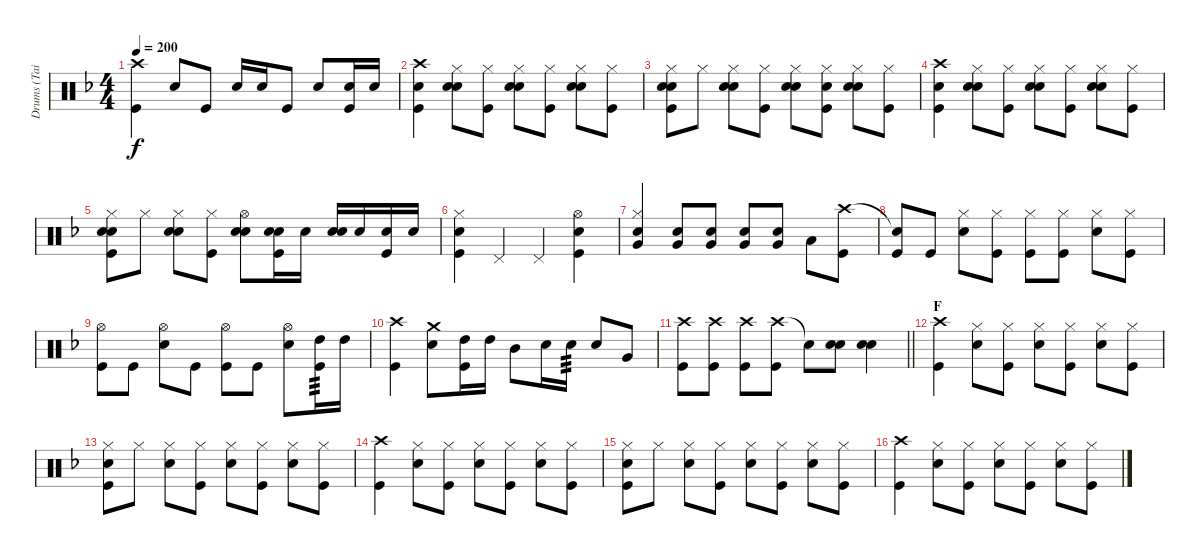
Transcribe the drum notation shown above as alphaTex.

\track ("Drums (Tainaka Ritsu)" "Drums (Tai") {instrument percussion}
\staff {score}
\articulation defaults
\ts (4 4)
\tempo 200
\clef neutral
\ks f
("Crash high (hit)" "Kick (hit)").4{dy f} "Snare (hit) 2".8 "Kick (hit)".8 "Snare (hit) 2".16 "Snare (hit) 2".16 "Kick (hit)".8 "Snare (hit) 2".8 ("Snare (hit) 2" "Kick (hit)").16 "Snare (hit) 2".16 |
("Crash high (hit)" "Hand Clap (hit)" "Kick (hit)").4 ("Hi-Hat (closed)" "Hand Clap (hit)" "Snare (hit) 2").8 ("Hi-Hat (closed)" "Kick (hit)").8 ("Hi-Hat (closed)" "Hand Clap (hit)" "Snare (hit) 2").8 ("Hi-Hat (closed)" "Kick (hit)").8 ("Hi-Hat (closed)" "Hand Clap (hit)" "Snare (hit) 2").8 ("Hi-Hat (closed)" "Kick (hit)").8 |
("Hi-Hat (closed)" "Hand Clap (hit)" "Snare (hit) 2" "Kick (hit)").8 "Hi-Hat (closed)".8 ("Hi-Hat (closed)" "Hand Clap (hit)" "Snare (hit) 2").8 ("Hi-Hat (closed)" "Kick (hit)").8 ("Hi-Hat (closed)" "Hand Clap (hit)" "Snare (hit) 2").8 ("Hi-Hat (closed)" "Hand Clap (hit)" "Kick (hit)").8 ("Hi-Hat (closed)" "Hand Clap (hit)" "Snare (hit) 2").8 ("Hi-Hat (closed)" "Kick (hit)").8 |
("Crash high (hit)" "Hand Clap (hit)" "Kick (hit)").4 ("Hi-Hat (closed)" "Hand Clap (hit)" "Snare (hit) 2").8 ("Hi-Hat (closed)" "Kick (hit)").8 ("Hi-Hat (closed)" "Hand Clap (hit)" "Snare (hit) 2").8 ("Hi-Hat (closed)" "Kick (hit)").8 ("Hi-Hat (closed)" "Hand Clap (hit)" "Snare (hit) 2").8 ("Hi-Hat (closed)" "Kick (hit)").8 |
("Hi-Hat (closed)" "Hand Clap (hit)" "Snare (hit) 2" "Kick (hit)").8 "Hi-Hat (closed)".8 ("Hi-Hat (closed)" "Hand Clap (hit)" "Snare (hit) 2").8 ("Hi-Hat (closed)" "Kick (hit)").8 ("Hi-Hat (open)" "Hand Clap (hit)" "Snare (hit) 2").8 ("Hand Clap (hit)" "Snare (hit) 2" "Kick (hit)").16 "Snare (hit) 2".16 ("Hand Clap (hit)" "Snare (hit) 2").16 "Snare (hit) 2".16 ("Snare (hit) 2" "Kick (hit)").16 "Snare (hit) 2".16 |
("Hi-Hat (closed)" "Snare (hit) 2" "Kick (hit)").4 "Pedal Hi-Hat (hit)".4 "Pedal Hi-Hat (hit)".4 ("Hi-Hat (open)" "Snare (hit) 2" "Kick (hit)").4 |
("Hi-Hat (closed)" "Snare (hit) 2" "Very Low Tom (hit)").4 ("Snare (hit) 2" "Very Low Tom (hit)").8 ("Snare (hit) 2" "Very Low Tom (hit)").8 ("Snare (hit) 2" "Very Low Tom (hit)").8 ("Snare (hit) 2" "Very Low Tom (hit)").8 "Low Tom (hit)".8 ("Crash high (hit)" "Kick (hit)").8 |
("Snare (hit)"{t} "Kick (hit)").8 "Kick (hit)".8 ("Hi-Hat (closed)" "Snare (hit) 2").8 ("Hi-Hat (closed)" "Kick (hit)").8 ("Hi-Hat (closed)" "Kick (hit)").8 ("Hi-Hat (closed)" "Kick (hit)").8 ("Hi-Hat (closed)" "Snare (hit) 2").8 ("Hi-Hat (closed)" "Kick (hit)").8 |
("Hi-Hat (open)" "Kick (hit)").8 "Kick (hit)".8 ("Hi-Hat (open)" "Snare (hit) 2").8 "Kick (hit)".8 ("Hi-Hat (open)" "Kick (hit)").8 "Kick (hit)".8 ("Hi-Hat (open)" "Snare (hit) 2").8 ("High Tom (hit)" "Kick (hit)").16{tp 3} "High Tom (hit)".16 |
("Crash high (hit)" "Kick (hit)").4 ("Crash medium (hit)" "Snare (hit) 2").8 ("High Tom (hit)" "Kick (hit)").16 "High Tom (hit)".16 "Mid Tom (hit)".8 "Snare (hit) 2".16 "Snare (hit) 2".16{tp 3} "Snare (hit) 2".8 "Very Low Tom (hit)".8 |
\barLineRight lightlight
("Crash high (hit)" "Kick (hit)").8 ("Crash high (hit)" "Kick (hit)").8 ("Crash high (hit)" "Kick (hit)").8 ("Crash high (hit)" "Kick (hit)").8 "Snare (hit)"{t}.8 ("Hand Clap (hit)" "Snare (hit) 2").8 ("Hand Clap (hit)" "Snare (hit) 2").4 |
\section ("" "F")
("Crash high (hit)" "Kick (hit)").4 ("Hi-Hat (closed)" "Snare (hit) 2").8 ("Hi-Hat (closed)" "Kick (hit)").8 ("Hi-Hat (closed)" "Snare (hit) 2").8 ("Hi-Hat (closed)" "Kick (hit)").8 ("Hi-Hat (closed)" "Snare (hit) 2").8 ("Hi-Hat (closed)" "Kick (hit)").8 |
("Hi-Hat (closed)" "Snare (hit) 2" "Kick (hit)").8 "Hi-Hat (closed)".8 ("Hi-Hat (closed)" "Snare (hit) 2").8 ("Hi-Hat (closed)" "Kick (hit)").8 ("Hi-Hat (closed)" "Snare (hit) 2").8 ("Hi-Hat (closed)" "Kick (hit)").8 ("Hi-Hat (closed)" "Snare (hit) 2").8 ("Hi-Hat (closed)" "Kick (hit)").8 |
("Crash high (hit)" "Kick (hit)").4 ("Hi-Hat (closed)" "Snare (hit) 2").8 ("Hi-Hat (closed)" "Kick (hit)").8 ("Hi-Hat (closed)" "Snare (hit) 2").8 ("Hi-Hat (closed)" "Kick (hit)").8 ("Hi-Hat (closed)" "Snare (hit) 2").8 ("Hi-Hat (closed)" "Kick (hit)").8 |
("Hi-Hat (closed)" "Snare (hit) 2" "Kick (hit)").8 "Hi-Hat (closed)".8 ("Hi-Hat (closed)" "Snare (hit) 2").8 ("Hi-Hat (closed)" "Kick (hit)").8 ("Hi-Hat (closed)" "Snare (hit) 2").8 ("Hi-Hat (closed)" "Kick (hit)").8 ("Hi-Hat (closed)" "Snare (hit) 2").8 ("Hi-Hat (closed)" "Kick (hit)").8 |
("Crash high (hit)" "Kick (hit)").4 ("Hi-Hat (closed)" "Snare (hit) 2").8 ("Hi-Hat (closed)" "Kick (hit)").8 ("Hi-Hat (closed)" "Snare (hit) 2").8 ("Hi-Hat (closed)" "Kick (hit)").8 ("Hi-Hat (closed)" "Snare (hit) 2").8 ("Hi-Hat (closed)" "Kick (hit)").8
